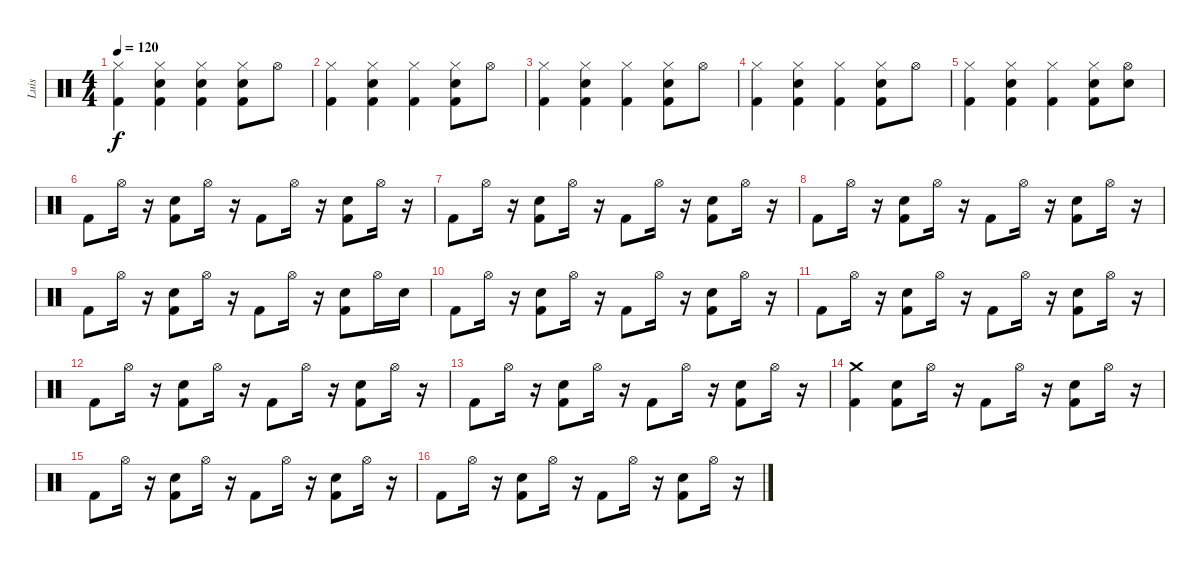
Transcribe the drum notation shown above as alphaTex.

\track ("Luis" "Luis") {instrument percussion}
\staff {score}
\articulation defaults
\ts (4 4)
\tempo 120
\clef neutral
\ks c
("Hi-Hat (closed)" "Kick (hit) 2").4{dy f} ("Hi-Hat (closed)" "Electric Snare (hit)" "Kick (hit) 2").4 ("Hi-Hat (closed)" "Electric Snare (hit)" "Kick (hit) 2").4 ("Hi-Hat (closed)" "Electric Snare (hit)" "Kick (hit) 2").8 "Hi-Hat (open)".8 |
("Hi-Hat (closed)" "Kick (hit) 2").4 ("Hi-Hat (closed)" "Electric Snare (hit)" "Kick (hit) 2").4 ("Hi-Hat (closed)" "Kick (hit) 2").4 ("Hi-Hat (closed)" "Electric Snare (hit)" "Kick (hit) 2").8 "Hi-Hat (open)".8 |
("Hi-Hat (closed)" "Kick (hit) 2").4 ("Hi-Hat (closed)" "Electric Snare (hit)" "Kick (hit) 2").4 ("Hi-Hat (closed)" "Kick (hit) 2").4 ("Hi-Hat (closed)" "Electric Snare (hit)" "Kick (hit) 2").8 "Hi-Hat (open)".8 |
("Hi-Hat (closed)" "Kick (hit) 2").4 ("Hi-Hat (closed)" "Electric Snare (hit)" "Kick (hit) 2").4 ("Hi-Hat (closed)" "Kick (hit) 2").4 ("Hi-Hat (closed)" "Electric Snare (hit)" "Kick (hit) 2").8 "Hi-Hat (open)".8 |
("Hi-Hat (closed)" "Kick (hit) 2").4 ("Hi-Hat (closed)" "Electric Snare (hit)" "Kick (hit) 2").4 ("Hi-Hat (closed)" "Kick (hit) 2").4 ("Hi-Hat (closed)" "Electric Snare (hit)" "Kick (hit) 2").8 ("Hi-Hat (open)" "Electric Snare (hit)").8 |
"Kick (hit) 2".8 "Hi-Hat (open)".16 r.16 ("Electric Snare (hit)" "Kick (hit) 2").8 "Hi-Hat (open)".16 r.16 "Kick (hit) 2".8 "Hi-Hat (open)".16 r.16 ("Electric Snare (hit)" "Kick (hit) 2").8 "Hi-Hat (open)".16 r.16 |
"Kick (hit) 2".8 "Hi-Hat (open)".16 r.16 ("Electric Snare (hit)" "Kick (hit) 2").8 "Hi-Hat (open)".16 r.16 "Kick (hit) 2".8 "Hi-Hat (open)".16 r.16 ("Electric Snare (hit)" "Kick (hit) 2").8 "Hi-Hat (open)".16 r.16 |
"Kick (hit) 2".8 "Hi-Hat (open)".16 r.16 ("Electric Snare (hit)" "Kick (hit) 2").8 "Hi-Hat (open)".16 r.16 "Kick (hit) 2".8 "Hi-Hat (open)".16 r.16 ("Electric Snare (hit)" "Kick (hit) 2").8 "Hi-Hat (open)".16 r.16 |
"Kick (hit) 2".8 "Hi-Hat (open)".16 r.16 ("Electric Snare (hit)" "Kick (hit) 2").8 "Hi-Hat (open)".16 r.16 "Kick (hit) 2".8 "Hi-Hat (open)".16 r.16 ("Electric Snare (hit)" "Kick (hit) 2").8 "Hi-Hat (open)".16 "Electric Snare (hit)".16 |
"Kick (hit) 2".8 "Hi-Hat (open)".16 r.16 ("Electric Snare (hit)" "Kick (hit) 2").8 "Hi-Hat (open)".16 r.16 "Kick (hit) 2".8 "Hi-Hat (open)".16 r.16 ("Electric Snare (hit)" "Kick (hit) 2").8 "Hi-Hat (open)".16 r.16 |
"Kick (hit) 2".8 "Hi-Hat (open)".16 r.16 ("Electric Snare (hit)" "Kick (hit) 2").8 "Hi-Hat (open)".16 r.16 "Kick (hit) 2".8 "Hi-Hat (open)".16 r.16 ("Electric Snare (hit)" "Kick (hit) 2").8 "Hi-Hat (open)".16 r.16 |
"Kick (hit) 2".8 "Hi-Hat (open)".16 r.16 ("Electric Snare (hit)" "Kick (hit) 2").8 "Hi-Hat (open)".16 r.16 "Kick (hit) 2".8 "Hi-Hat (open)".16 r.16 ("Electric Snare (hit)" "Kick (hit) 2").8 "Hi-Hat (open)".16 r.16 |
"Kick (hit) 2".8 "Hi-Hat (open)".16 r.16 ("Electric Snare (hit)" "Kick (hit) 2").8 "Hi-Hat (open)".16 r.16 "Kick (hit) 2".8 "Hi-Hat (open)".16 r.16 ("Electric Snare (hit)" "Kick (hit) 2").8 "Hi-Hat (open)".16 r.16 |
("Crash medium (hit)" "Kick (hit) 2").4 ("Electric Snare (hit)" "Kick (hit) 2").8 "Hi-Hat (open)".16 r.16 "Kick (hit) 2".8 "Hi-Hat (open)".16 r.16 ("Electric Snare (hit)" "Kick (hit) 2").8 "Hi-Hat (open)".16 r.16 |
"Kick (hit) 2".8 "Hi-Hat (open)".16 r.16 ("Electric Snare (hit)" "Kick (hit) 2").8 "Hi-Hat (open)".16 r.16 "Kick (hit) 2".8 "Hi-Hat (open)".16 r.16 ("Electric Snare (hit)" "Kick (hit) 2").8 "Hi-Hat (open)".16 r.16 |
"Kick (hit) 2".8 "Hi-Hat (open)".16 r.16 ("Electric Snare (hit)" "Kick (hit) 2").8 "Hi-Hat (open)".16 r.16 "Kick (hit) 2".8 "Hi-Hat (open)".16 r.16 ("Electric Snare (hit)" "Kick (hit) 2").8 "Hi-Hat (open)".16 r.16
